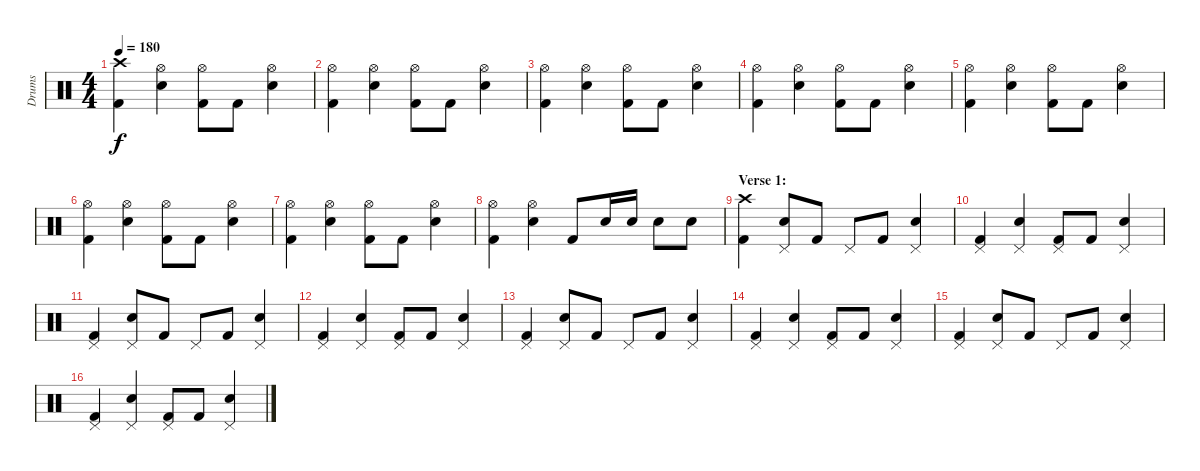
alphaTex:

\track ("Drums" "Drums") {instrument percussion}
\staff {score}
\articulation defaults
\ts (4 4)
\tempo 180
\clef neutral
\ks c
("Crash high (hit)" "Kick (hit) 2").4{dy f} ("Hi-Hat (open)" "Electric Snare (hit)").4 ("Hi-Hat (open)" "Kick (hit) 2").8 "Kick (hit) 2".8 ("Hi-Hat (open)" "Electric Snare (hit)").4 |
("Hi-Hat (open)" "Kick (hit) 2").4 ("Hi-Hat (open)" "Electric Snare (hit)").4 ("Hi-Hat (open)" "Kick (hit) 2").8 "Kick (hit) 2".8 ("Hi-Hat (open)" "Electric Snare (hit)").4 |
("Hi-Hat (open)" "Kick (hit) 2").4 ("Hi-Hat (open)" "Electric Snare (hit)").4 ("Hi-Hat (open)" "Kick (hit) 2").8 "Kick (hit) 2".8 ("Hi-Hat (open)" "Electric Snare (hit)").4 |
("Hi-Hat (open)" "Kick (hit) 2").4 ("Hi-Hat (open)" "Electric Snare (hit)").4 ("Hi-Hat (open)" "Kick (hit) 2").8 "Kick (hit) 2".8 ("Hi-Hat (open)" "Electric Snare (hit)").4 |
("Hi-Hat (open)" "Kick (hit) 2").4 ("Hi-Hat (open)" "Electric Snare (hit)").4 ("Hi-Hat (open)" "Kick (hit) 2").8 "Kick (hit) 2".8 ("Hi-Hat (open)" "Electric Snare (hit)").4 |
("Hi-Hat (open)" "Kick (hit) 2").4 ("Hi-Hat (open)" "Electric Snare (hit)").4 ("Hi-Hat (open)" "Kick (hit) 2").8 "Kick (hit) 2".8 ("Hi-Hat (open)" "Electric Snare (hit)").4 |
("Hi-Hat (open)" "Kick (hit) 2").4 ("Hi-Hat (open)" "Electric Snare (hit)").4 ("Hi-Hat (open)" "Kick (hit) 2").8 "Kick (hit) 2".8 ("Hi-Hat (open)" "Electric Snare (hit)").4 |
("Hi-Hat (open)" "Kick (hit) 2").4 ("Hi-Hat (open)" "Electric Snare (hit)").4 "Kick (hit) 2".8 "Electric Snare (hit)".16 "Electric Snare (hit)".16 "Electric Snare (hit)".8 "Electric Snare (hit)".8 |
\section ("" "Verse 1:")
("Crash high (hit)" "Kick (hit) 2").4 ("Pedal Hi-Hat (hit)" "Electric Snare (hit)").8 "Kick (hit) 2".8 "Pedal Hi-Hat (hit)".8 "Kick (hit) 2".8 ("Pedal Hi-Hat (hit)" "Electric Snare (hit)").4 |
("Pedal Hi-Hat (hit)" "Kick (hit) 2").4 ("Pedal Hi-Hat (hit)" "Electric Snare (hit)").4 ("Pedal Hi-Hat (hit)" "Kick (hit) 2").8 "Kick (hit) 2".8 ("Pedal Hi-Hat (hit)" "Electric Snare (hit)").4 |
("Pedal Hi-Hat (hit)" "Kick (hit) 2").4 ("Pedal Hi-Hat (hit)" "Electric Snare (hit)").8 "Kick (hit) 2".8 "Pedal Hi-Hat (hit)".8 "Kick (hit) 2".8 ("Pedal Hi-Hat (hit)" "Electric Snare (hit)").4 |
("Pedal Hi-Hat (hit)" "Kick (hit) 2").4 ("Pedal Hi-Hat (hit)" "Electric Snare (hit)").4 ("Pedal Hi-Hat (hit)" "Kick (hit) 2").8 "Kick (hit) 2".8 ("Pedal Hi-Hat (hit)" "Electric Snare (hit)").4 |
("Pedal Hi-Hat (hit)" "Kick (hit) 2").4 ("Pedal Hi-Hat (hit)" "Electric Snare (hit)").8 "Kick (hit) 2".8 "Pedal Hi-Hat (hit)".8 "Kick (hit) 2".8 ("Pedal Hi-Hat (hit)" "Electric Snare (hit)").4 |
("Pedal Hi-Hat (hit)" "Kick (hit) 2").4 ("Pedal Hi-Hat (hit)" "Electric Snare (hit)").4 ("Pedal Hi-Hat (hit)" "Kick (hit) 2").8 "Kick (hit) 2".8 ("Pedal Hi-Hat (hit)" "Electric Snare (hit)").4 |
("Pedal Hi-Hat (hit)" "Kick (hit) 2").4 ("Pedal Hi-Hat (hit)" "Electric Snare (hit)").8 "Kick (hit) 2".8 "Pedal Hi-Hat (hit)".8 "Kick (hit) 2".8 ("Pedal Hi-Hat (hit)" "Electric Snare (hit)").4 |
("Pedal Hi-Hat (hit)" "Kick (hit) 2").4 ("Pedal Hi-Hat (hit)" "Electric Snare (hit)").4 ("Pedal Hi-Hat (hit)" "Kick (hit) 2").8 "Kick (hit) 2".8 ("Pedal Hi-Hat (hit)" "Electric Snare (hit)").4
